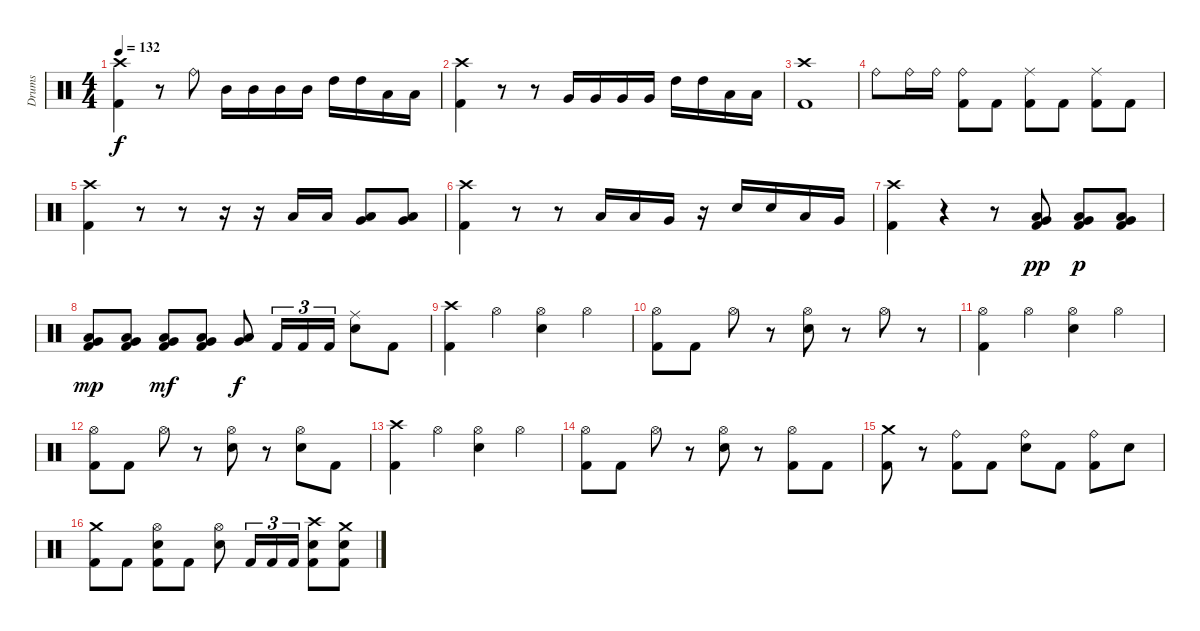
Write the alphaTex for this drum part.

\track ("Drums" "Drums") {instrument percussion}
\staff {score}
\articulation defaults
\ts (4 4)
\tempo 132
\clef neutral
\ks c
("Crash high (hit)" "Kick (hit) 2").4{dy f} r.8 "Ride (bell)".8 "Mid Tom (hit)".16 "Mid Tom (hit)".16 "Mid Tom (hit)".16 "Mid Tom (hit)".16 "High Tom (hit)".16 "High Tom (hit)".16 "Low Tom (hit)".16 "Low Tom (hit)".16 |
("Crash high (hit)" "Kick (hit) 2").4 r.8 r.8 "Very Low Tom (hit)".16 "Very Low Tom (hit)".16 "Very Low Tom (hit)".16 "Very Low Tom (hit)".16 "High Tom (hit)".16 "High Tom (hit)".16 "Low Tom (hit)".16 "Low Tom (hit)".16 |
("Crash high (hit)" "Kick (hit) 2").1 |
"Ride (bell)".8 "Ride (bell)".16 "Ride (bell)".16 ("Ride (bell)" "Kick (hit) 2").8 "Kick (hit) 2".8 ("Ride (middle)" "Kick (hit) 2").8 "Kick (hit) 2".8 ("Ride (middle)" "Kick (hit) 2").8 "Kick (hit) 2".8 |
("Crash high (hit)" "Kick (hit) 2").4 r.8 r.8 r.16 r.16 "Low Tom (hit)".16 "Low Tom (hit)".16 ("Low Tom (hit)" "Very Low Tom (hit)").8 ("Very Low Tom (hit)" "Low Floor Tom (hit)").8 |
("Crash high (hit)" "Kick (hit) 2").4 r.8 r.8 "Low Tom (hit)".16 "Low Tom (hit)".16 "Very Low Tom (hit)".16 r.16 "Electric Snare (hit)".16 "Electric Snare (hit)".16 "Low Tom (hit)".16 "Very Low Tom (hit)".16 |
("Crash high (hit)" "Kick (hit) 2").4 r.4 r.8 ("Very Low Tom (hit)" "Low Floor Tom (hit)" "Kick (hit) 2").8{dy pp} ("Very Low Tom (hit)" "Low Floor Tom (hit)" "Kick (hit) 2").8{dy p} ("Very Low Tom (hit)" "Low Floor Tom (hit)" "Kick (hit) 2").8 |
("Very Low Tom (hit)" "Low Floor Tom (hit)" "Kick (hit) 2").8{dy mp} ("Very Low Tom (hit)" "Low Floor Tom (hit)" "Kick (hit) 2").8 ("Very Low Tom (hit)" "Low Floor Tom (hit)" "Kick (hit) 2").8{dy mf} ("Very Low Tom (hit)" "Low Floor Tom (hit)" "Kick (hit) 2").8 ("Very Low Tom (hit)" "Low Floor Tom (hit)").8{dy f} "Kick (hit) 2".16{tu (3 2)} "Kick (hit) 2".16{tu (3 2)} "Kick (hit) 2".16{tu (3 2)} ("Ride (middle)" "Electric Snare (hit)").8 "Kick (hit) 2".8 |
("Crash high (hit)" "Kick (hit) 2").4 "Hi-Hat (open)".4 ("Hi-Hat (open)" "Electric Snare (hit)").4 "Hi-Hat (open)".4 |
("Hi-Hat (open)" "Kick (hit) 2").8 "Kick (hit) 2".8 "Hi-Hat (open)".8 r.8 ("Hi-Hat (open)" "Electric Snare (hit)").8 r.8 "Hi-Hat (open)".8 r.8 |
("Hi-Hat (open)" "Kick (hit) 2").4 "Hi-Hat (open)".4 ("Hi-Hat (open)" "Electric Snare (hit)").4 "Hi-Hat (open)".4 |
("Hi-Hat (open)" "Kick (hit) 2").8 "Kick (hit) 2".8 "Hi-Hat (open)".8 r.8 ("Hi-Hat (open)" "Electric Snare (hit)").8 r.8 ("Hi-Hat (open)" "Electric Snare (hit)").8 "Kick (hit) 2".8 |
("Crash high (hit)" "Kick (hit) 2").4 "Hi-Hat (open)".4 ("Hi-Hat (open)" "Electric Snare (hit)").4 "Hi-Hat (open)".4 |
("Hi-Hat (open)" "Kick (hit) 2").8 "Kick (hit) 2".8 "Hi-Hat (open)".8 r.8 ("Hi-Hat (open)" "Electric Snare (hit)").8 r.8 ("Hi-Hat (open)" "Kick (hit) 2").8 "Kick (hit) 2".8 |
("Crash medium (hit)" "Kick (hit) 2").8 r.8 ("Ride (bell)" "Kick (hit) 2").8 "Kick (hit) 2".8 ("Ride (bell)" "Electric Snare (hit)").8 "Kick (hit) 2".8 ("Ride (bell)" "Kick (hit) 2").8 "Electric Snare (hit)".8 |
("Crash medium (hit)" "Kick (hit) 2").8 "Kick (hit) 2".8 ("Hi-Hat (open)" "Electric Snare (hit)" "Kick (hit) 2").8 "Kick (hit) 2".8 ("Hi-Hat (open)" "Electric Snare (hit)").8 "Kick (hit) 2".16{tu (3 2)} "Kick (hit) 2".16{tu (3 2)} "Kick (hit) 2".16{tu (3 2)} ("Crash high (hit)" "Electric Snare (hit)" "Kick (hit) 2").8 ("Crash medium (hit)" "Electric Snare (hit)" "Kick (hit) 2").8
